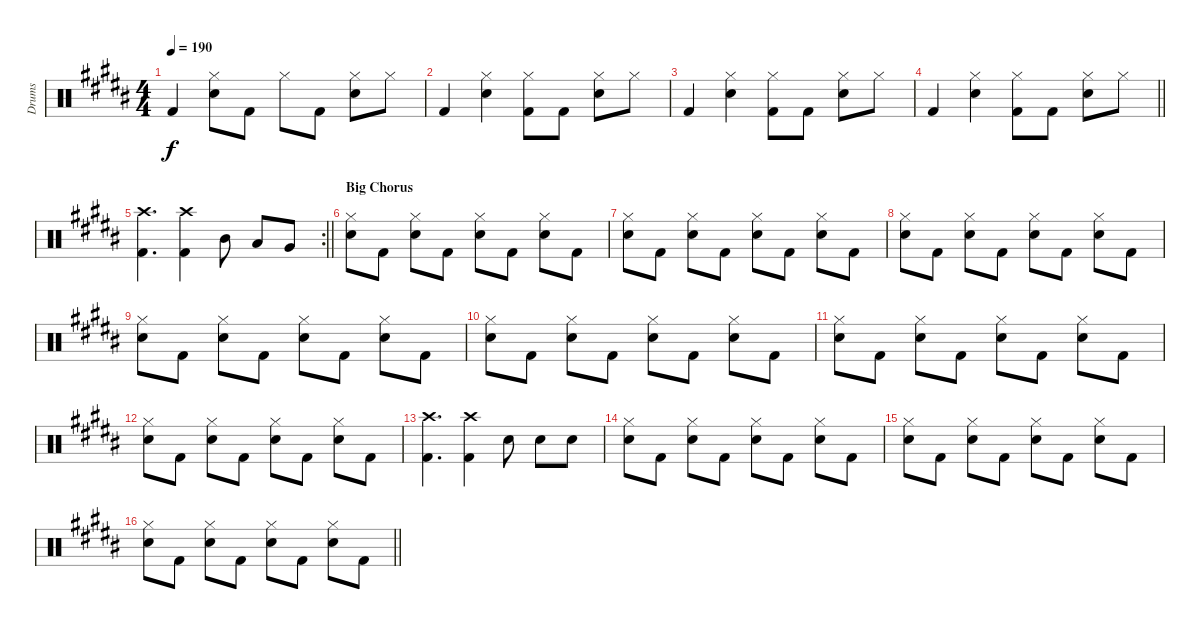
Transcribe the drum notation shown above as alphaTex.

\track ("Drums" "Drums") {instrument percussion}
\staff {score}
\articulation defaults
\ts (4 4)
\tempo 190
\clef neutral
\ks b "Kick (hit) 2".4{dy f}
("Hi-Hat (closed)" "Electric Snare (hit)").8 "Kick (hit) 2".8 "Hi-Hat (closed)".8 "Kick (hit) 2".8 ("Hi-Hat (closed)" "Electric Snare (hit)").8 "Hi-Hat (closed)".8 |
"Kick (hit) 2".4 ("Hi-Hat (closed)" "Electric Snare (hit)").4 ("Hi-Hat (closed)" "Kick (hit) 2").8 "Kick (hit) 2".8 ("Hi-Hat (closed)" "Electric Snare (hit)").8 "Hi-Hat (closed)".8 |
"Kick (hit) 2".4 ("Hi-Hat (closed)" "Electric Snare (hit)").4 ("Hi-Hat (closed)" "Kick (hit) 2").8 "Kick (hit) 2".8 ("Hi-Hat (closed)" "Electric Snare (hit)").8 "Hi-Hat (closed)".8 |
\barLineRight lightlight "Kick (hit) 2".4
("Hi-Hat (closed)" "Electric Snare (hit)").4 ("Hi-Hat (closed)" "Kick (hit) 2").8 "Kick (hit) 2".8 ("Hi-Hat (closed)" "Electric Snare (hit)").8 "Hi-Hat (closed)".8 |
\rc 2
\barLineRight lightlight
("Crash high (hit)" "Kick (hit) 2").4{d} ("Crash high (hit)" "Kick (hit) 2").4 "Mid Tom (hit)".8 "Low Tom (hit)".8 "Very Low Tom (hit)".8 |
\section ("" "Big Chorus")
("Hi-Hat (closed)" "Electric Snare (hit)").8 "Kick (hit) 2".8 ("Hi-Hat (closed)" "Electric Snare (hit)").8 "Kick (hit) 2".8 ("Hi-Hat (closed)" "Electric Snare (hit)").8 "Kick (hit) 2".8 ("Hi-Hat (closed)" "Electric Snare (hit)").8 "Kick (hit) 2".8 |
("Hi-Hat (closed)" "Electric Snare (hit)").8 "Kick (hit) 2".8 ("Hi-Hat (closed)" "Electric Snare (hit)").8 "Kick (hit) 2".8 ("Hi-Hat (closed)" "Electric Snare (hit)").8 "Kick (hit) 2".8 ("Hi-Hat (closed)" "Electric Snare (hit)").8 "Kick (hit) 2".8 |
("Hi-Hat (closed)" "Electric Snare (hit)").8 "Kick (hit) 2".8 ("Hi-Hat (closed)" "Electric Snare (hit)").8 "Kick (hit) 2".8 ("Hi-Hat (closed)" "Electric Snare (hit)").8 "Kick (hit) 2".8 ("Hi-Hat (closed)" "Electric Snare (hit)").8 "Kick (hit) 2".8 |
("Hi-Hat (closed)" "Electric Snare (hit)").8 "Kick (hit) 2".8 ("Hi-Hat (closed)" "Electric Snare (hit)").8 "Kick (hit) 2".8 ("Hi-Hat (closed)" "Electric Snare (hit)").8 "Kick (hit) 2".8 ("Hi-Hat (closed)" "Electric Snare (hit)").8 "Kick (hit) 2".8 |
("Hi-Hat (closed)" "Electric Snare (hit)").8 "Kick (hit) 2".8 ("Hi-Hat (closed)" "Electric Snare (hit)").8 "Kick (hit) 2".8 ("Hi-Hat (closed)" "Electric Snare (hit)").8 "Kick (hit) 2".8 ("Hi-Hat (closed)" "Electric Snare (hit)").8 "Kick (hit) 2".8 |
("Hi-Hat (closed)" "Electric Snare (hit)").8 "Kick (hit) 2".8 ("Hi-Hat (closed)" "Electric Snare (hit)").8 "Kick (hit) 2".8 ("Hi-Hat (closed)" "Electric Snare (hit)").8 "Kick (hit) 2".8 ("Hi-Hat (closed)" "Electric Snare (hit)").8 "Kick (hit) 2".8 |
("Hi-Hat (closed)" "Electric Snare (hit)").8 "Kick (hit) 2".8 ("Hi-Hat (closed)" "Electric Snare (hit)").8 "Kick (hit) 2".8 ("Hi-Hat (closed)" "Electric Snare (hit)").8 "Kick (hit) 2".8 ("Hi-Hat (closed)" "Electric Snare (hit)").8 "Kick (hit) 2".8 |
("Crash high (hit)" "Kick (hit) 2").4{d} ("Crash high (hit)" "Kick (hit) 2").4 "Electric Snare (hit)".8 "Electric Snare (hit)".8 "Electric Snare (hit)".8 |
("Hi-Hat (closed)" "Electric Snare (hit)").8 "Kick (hit) 2".8 ("Hi-Hat (closed)" "Electric Snare (hit)").8 "Kick (hit) 2".8 ("Hi-Hat (closed)" "Electric Snare (hit)").8 "Kick (hit) 2".8 ("Hi-Hat (closed)" "Electric Snare (hit)").8 "Kick (hit) 2".8 |
("Hi-Hat (closed)" "Electric Snare (hit)").8 "Kick (hit) 2".8 ("Hi-Hat (closed)" "Electric Snare (hit)").8 "Kick (hit) 2".8 ("Hi-Hat (closed)" "Electric Snare (hit)").8 "Kick (hit) 2".8 ("Hi-Hat (closed)" "Electric Snare (hit)").8 "Kick (hit) 2".8 |
\barLineRight lightlight
("Hi-Hat (closed)" "Electric Snare (hit)").8 "Kick (hit) 2".8 ("Hi-Hat (closed)" "Electric Snare (hit)").8 "Kick (hit) 2".8 ("Hi-Hat (closed)" "Electric Snare (hit)").8 "Kick (hit) 2".8 ("Hi-Hat (closed)" "Electric Snare (hit)").8 "Kick (hit) 2".8
